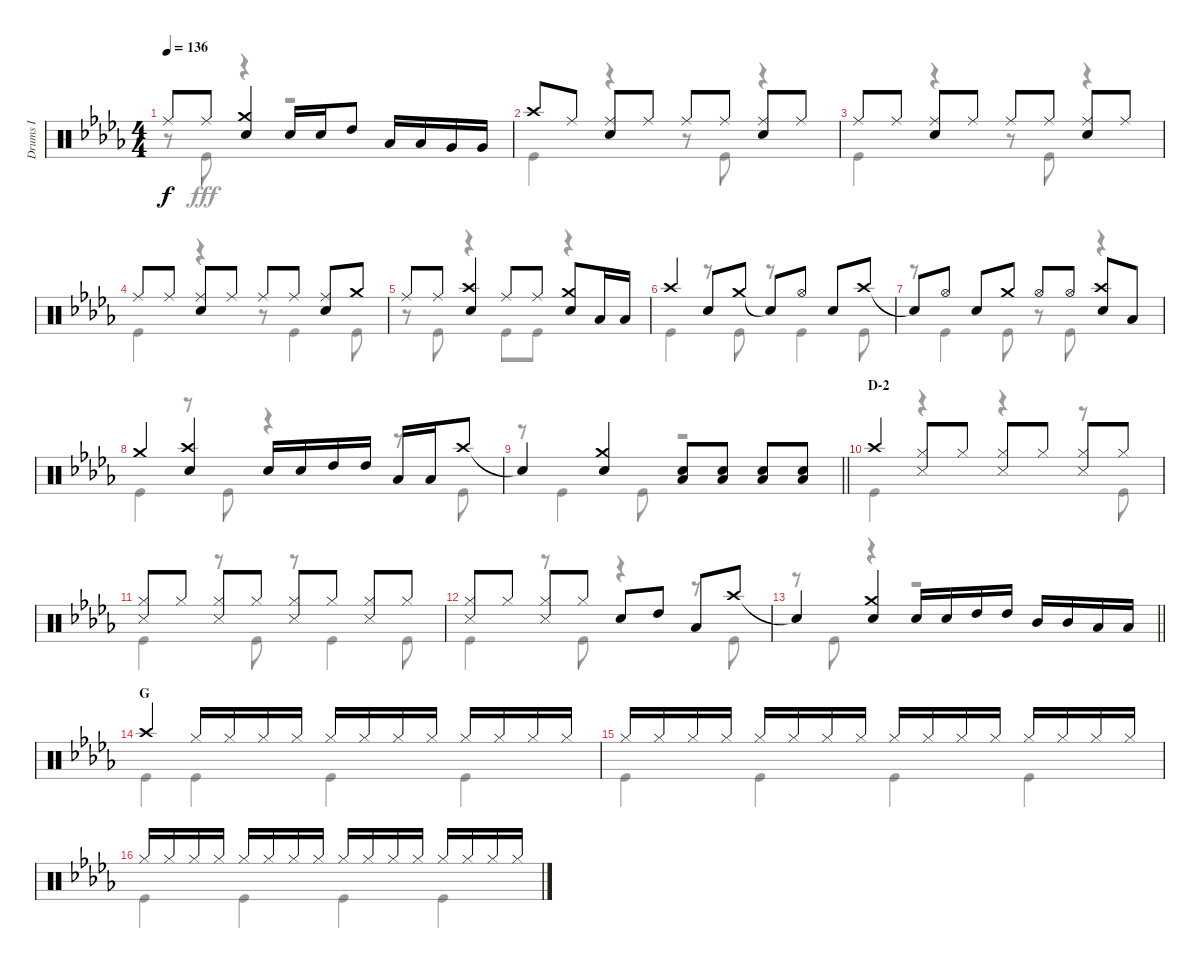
\track ("Drums I" "Drums I") {instrument percussion}
\staff {score}
\articulation defaults
\voice
\ts (4 4)
\tempo 136
\clef neutral
\ks db "Ride (middle)".8{dy f} "Ride (middle)".8
("Crash medium (hit)" "Snare (hit) 2").4 "Snare (hit) 2".16 "Snare (hit) 2".16 "High Tom (hit)".8 "Low Tom (hit)".16 "Low Tom (hit)".16 "Very Low Tom (hit)".16 "Very Low Tom (hit)".16 |
"Crash high (hit)".8 "Ride (middle)".8 ("Ride (middle)" "Snare (hit) 2").8 "Ride (middle)".8 "Ride (middle)".8 "Ride (middle)".8 ("Ride (middle)" "Snare (hit) 2").8 "Ride (middle)".8 |
"Ride (middle)".8 "Ride (middle)".8 ("Ride (middle)" "Snare (hit) 2").8 "Ride (middle)".8 "Ride (middle)".8 "Ride (middle)".8 ("Ride (middle)" "Snare (hit) 2").8 "Ride (middle)".8 |
"Ride (middle)".8 "Ride (middle)".8 ("Ride (middle)" "Snare (hit) 2").8 "Ride (middle)".8 "Ride (middle)".8 "Ride (middle)".8 ("Ride (middle)" "Snare (hit) 2").8 "Crash medium (hit)".8 |
"Ride (middle)".8 "Ride (middle)".8 ("Crash high (hit)" "Snare (hit) 2").4 "Ride (middle)".8 "Ride (middle)".8 ("Crash medium (hit)" "Snare (hit) 2").8 "Low Tom (hit)".16 "Low Tom (hit)".16 |
"Crash high (hit)".4 "Snare (hit) 2".8 "Crash medium (hit)".8 "Snare (hit)"{t}.8 "Hi-Hat (open)".8 "Snare (hit) 2".8 "Crash high (hit)".8 |
"Snare (hit)"{t}.8 "Hi-Hat (open)".8 "Snare (hit) 2".8 "Crash medium (hit)".8 "Hi-Hat (open)".8 "Hi-Hat (open)".8 ("Crash high (hit)" "Snare (hit) 2").8 "Low Tom (hit)".8 |
"Crash medium (hit)".4 ("Crash high (hit)" "Snare (hit) 2").4 "Snare (hit) 2".16 "Snare (hit) 2".16 "High Tom (hit)".16 "High Tom (hit)".16 "Low Tom (hit)".16 "Low Tom (hit)".16 "Crash high (hit)".8 |
\barLineRight lightlight "Snare (hit)"{t}.4
("Crash medium (hit)" "Snare (hit) 2").4 ("Snare (hit) 2" "Low Tom (hit)").8 ("Snare (hit) 2" "Low Tom (hit)").8 ("Snare (hit) 2" "Low Tom (hit)").8 ("Snare (hit) 2" "Low Tom (hit)").8 |
\section ("" "D-2")
"Crash high (hit)".4 ("Hi-Hat (closed)" "Snare (side stick) 3").8 "Hi-Hat (closed)".8 ("Hi-Hat (closed)" "Snare (side stick) 3").8 "Hi-Hat (closed)".8 ("Hi-Hat (closed)" "Snare (side stick) 3").8 "Hi-Hat (closed)".8 |
("Hi-Hat (closed)" "Snare (side stick) 3").8 "Hi-Hat (closed)".8 ("Hi-Hat (closed)" "Snare (side stick) 3").8 "Hi-Hat (closed)".8 ("Hi-Hat (closed)" "Snare (side stick) 3").8 "Hi-Hat (closed)".8 ("Hi-Hat (closed)" "Snare (side stick) 3").8 "Hi-Hat (closed)".8 |
("Hi-Hat (closed)" "Snare (side stick) 3").8 "Hi-Hat (closed)".8 ("Hi-Hat (closed)" "Snare (side stick) 3").8 "Hi-Hat (closed)".8 "Snare (hit) 2".8 "High Tom (hit)".8 "Low Tom (hit)".8 "Crash high (hit)".8 |
\barLineRight lightlight "Snare (hit)"{t}.4
("Crash medium (hit)" "Snare (hit) 2").4 "Snare (hit) 2".16 "Snare (hit) 2".16 "High Tom (hit)".16 "High Tom (hit)".16 "Mid Tom (hit)".16 "Mid Tom (hit)".16 "Low Tom (hit)".16 "Low Tom (hit)".16 |
\section ("" "G")
"Crash high (hit)".4 "Hi-Hat (closed)".16 "Hi-Hat (closed)".16 "Hi-Hat (closed)".16 "Hi-Hat (closed)".16 "Hi-Hat (closed)".16 "Hi-Hat (closed)".16 "Hi-Hat (closed)".16 "Hi-Hat (closed)".16 "Hi-Hat (closed)".16 "Hi-Hat (closed)".16 "Hi-Hat (closed)".16 "Hi-Hat (closed)".16 |
"Hi-Hat (closed)".16 "Hi-Hat (closed)".16 "Hi-Hat (closed)".16 "Hi-Hat (closed)".16 "Hi-Hat (closed)".16 "Hi-Hat (closed)".16 "Hi-Hat (closed)".16 "Hi-Hat (closed)".16 "Hi-Hat (closed)".16 "Hi-Hat (closed)".16 "Hi-Hat (closed)".16 "Hi-Hat (closed)".16 "Hi-Hat (closed)".16 "Hi-Hat (closed)".16 "Hi-Hat (closed)".16 "Hi-Hat (closed)".16 |
"Hi-Hat (closed)".16 "Hi-Hat (closed)".16 "Hi-Hat (closed)".16 "Hi-Hat (closed)".16 "Hi-Hat (closed)".16 "Hi-Hat (closed)".16 "Hi-Hat (closed)".16 "Hi-Hat (closed)".16 "Hi-Hat (closed)".16 "Hi-Hat (closed)".16 "Hi-Hat (closed)".16 "Hi-Hat (closed)".16 "Hi-Hat (closed)".16 "Hi-Hat (closed)".16 "Hi-Hat (closed)".16 "Hi-Hat (closed)".16
\voice
\clef neutral
\ottava regular
\simile none
\ks db
r.8{dy fff} "Kick (hit)".8 r.4 r.2 |
"Kick (hit)".4 r.4 r.8 "Kick (hit)".8 r.4 |
"Kick (hit)".4 r.4 r.8 "Kick (hit)".8 r.4 |
"Kick (hit)".4 r.4 r.8 "Kick (hit)".4 "Kick (hit)".8 |
r.8 "Kick (hit)".8 r.4 "Kick (hit)".8 "Kick (hit)".8 r.4 |
"Kick (hit)".4 r.8 "Kick (hit)".8 r.8 "Kick (hit)".4 "Kick (hit)".8 |
r.8 "Kick (hit)".4 "Kick (hit)".8 r.8 "Kick (hit)".8 r.4 |
"Kick (hit)".4 r.8 "Kick (hit)".8 r.4 r.8 "Kick (hit)".8 |
\barLineRight lightlight
r.8 "Kick (hit)".4 "Kick (hit)".8 r.2 |
"Kick (hit)".4 r.4 r.4 r.8 "Kick (hit)".8 |
"Kick (hit)".4 r.8 "Kick (hit)".8 r.8 "Kick (hit)".4 "Kick (hit)".8 |
"Kick (hit)".4 r.8 "Kick (hit)".8 r.4 r.8 "Kick (hit)".8 |
\barLineRight lightlight
r.8 "Kick (hit)".8 r.4 r.2 |
"Kick (hit)".4 "Kick (hit)".4 "Kick (hit)".4 "Kick (hit)".4 |
"Kick (hit)".4 "Kick (hit)".4 "Kick (hit)".4 "Kick (hit)".4 |
"Kick (hit)".4 "Kick (hit)".4 "Kick (hit)".4 "Kick (hit)".4
